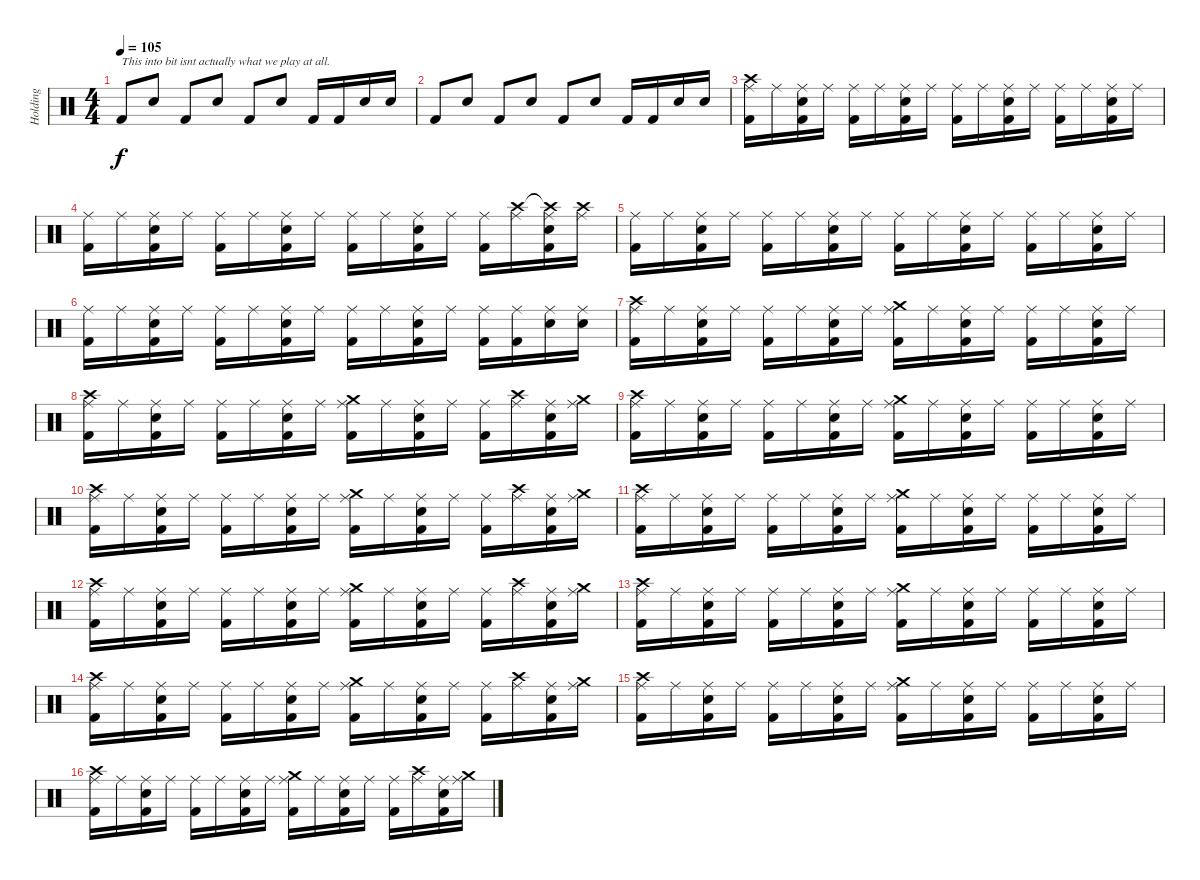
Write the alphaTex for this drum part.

\track ("Holding" "Holding") {instrument percussion}
\staff {score}
\articulation defaults
\ts (4 4)
\tempo 105
\clef neutral
\ks c "Kick (hit) 2".8{txt "This into bit isnt actually what we play at all." dy f} "Electric Snare (hit)".8 "Kick (hit) 2".8 "Electric Snare (hit)".8 "Kick (hit) 2".8 "Electric Snare (hit)".8 "Kick (hit) 2".16 "Kick (hit) 2".16 "Electric Snare (hit)".16 "Electric Snare (hit)".16
|
"Kick (hit) 2".8 "Electric Snare (hit)".8 "Kick (hit) 2".8 "Electric Snare (hit)".8 "Kick (hit) 2".8 "Electric Snare (hit)".8 "Kick (hit) 2".16 "Kick (hit) 2".16 "Electric Snare (hit)".16 "Electric Snare (hit)".16 |
("Crash high (hit)" "Ride (middle)" "Kick (hit) 2").16 "Ride (middle)".16 ("Ride (middle)" "Electric Snare (hit)" "Kick (hit) 2").16 "Ride (middle)".16 ("Ride (middle)" "Kick (hit) 2").16 "Ride (middle)".16 ("Ride (middle)" "Electric Snare (hit)" "Kick (hit) 2").16 "Ride (middle)".16 ("Ride (middle)" "Kick (hit) 2").16 "Ride (middle)".16 ("Ride (middle)" "Electric Snare (hit)" "Kick (hit) 2").16 "Ride (middle)".16 ("Ride (middle)" "Kick (hit) 2").16 "Ride (middle)".16 ("Ride (middle)" "Electric Snare (hit)" "Kick (hit) 2").16 "Ride (middle)".16 |
("Ride (middle)" "Kick (hit) 2").16 "Ride (middle)".16 ("Ride (middle)" "Electric Snare (hit)" "Kick (hit) 2").16 "Ride (middle)".16 ("Ride (middle)" "Kick (hit) 2").16 "Ride (middle)".16 ("Ride (middle)" "Electric Snare (hit)" "Kick (hit) 2").16 "Ride (middle)".16 ("Ride (middle)" "Kick (hit) 2").16 "Ride (middle)".16 ("Ride (middle)" "Electric Snare (hit)" "Kick (hit) 2").16 "Ride (middle)".16 ("Ride (middle)" "Kick (hit) 2").16 ("Crash high (hit)" "Ride (middle)").16 ("Crash high (hit)"{t} "Ride (middle)" "Electric Snare (hit)" "Kick (hit) 2").16 ("Crash high (hit)" "Ride (middle)").16 |
("Ride (middle)" "Kick (hit) 2").16 "Ride (middle)".16 ("Ride (middle)" "Electric Snare (hit)" "Kick (hit) 2").16 "Ride (middle)".16 ("Ride (middle)" "Kick (hit) 2").16 "Ride (middle)".16 ("Ride (middle)" "Electric Snare (hit)" "Kick (hit) 2").16 "Ride (middle)".16 ("Ride (middle)" "Kick (hit) 2").16 "Ride (middle)".16 ("Ride (middle)" "Electric Snare (hit)" "Kick (hit) 2").16 "Ride (middle)".16 ("Ride (middle)" "Kick (hit) 2").16 "Ride (middle)".16 ("Ride (middle)" "Electric Snare (hit)" "Kick (hit) 2").16 "Ride (middle)".16 |
("Ride (middle)" "Kick (hit) 2").16 "Ride (middle)".16 ("Ride (middle)" "Electric Snare (hit)" "Kick (hit) 2").16 "Ride (middle)".16 ("Ride (middle)" "Kick (hit) 2").16 "Ride (middle)".16 ("Ride (middle)" "Electric Snare (hit)" "Kick (hit) 2").16 "Ride (middle)".16 ("Ride (middle)" "Kick (hit) 2").16 "Ride (middle)".16 ("Ride (middle)" "Electric Snare (hit)" "Kick (hit) 2").16 "Ride (middle)".16 ("Ride (middle)" "Kick (hit) 2").16 ("Ride (middle)" "Kick (hit) 2").16 ("Ride (middle)" "Electric Snare (hit)").16 ("Ride (middle)" "Electric Snare (hit)").16 |
("Crash high (hit)" "Ride (middle)" "Kick (hit) 2").16 "Ride (middle)".16 ("Ride (middle)" "Electric Snare (hit)" "Kick (hit) 2").16 "Ride (middle)".16 ("Ride (middle)" "Kick (hit) 2").16 "Ride (middle)".16 ("Ride (middle)" "Electric Snare (hit)" "Kick (hit) 2").16 "Ride (middle)".16 ("Crash medium (hit)" "Ride (middle)" "Kick (hit) 2").16 "Ride (middle)".16 ("Ride (middle)" "Electric Snare (hit)" "Kick (hit) 2").16 "Ride (middle)".16 ("Ride (middle)" "Kick (hit) 2").16 "Ride (middle)".16 ("Ride (middle)" "Electric Snare (hit)" "Kick (hit) 2").16 "Ride (middle)".16 |
("Crash high (hit)" "Ride (middle)" "Kick (hit) 2").16 "Ride (middle)".16 ("Ride (middle)" "Electric Snare (hit)" "Kick (hit) 2").16 "Ride (middle)".16 ("Ride (middle)" "Kick (hit) 2").16 "Ride (middle)".16 ("Ride (middle)" "Electric Snare (hit)" "Kick (hit) 2").16 "Ride (middle)".16 ("Crash medium (hit)" "Ride (middle)" "Kick (hit) 2").16 "Ride (middle)".16 ("Ride (middle)" "Electric Snare (hit)" "Kick (hit) 2").16 "Ride (middle)".16 ("Ride (middle)" "Kick (hit) 2").16 ("Crash high (hit)" "Ride (middle)").16 ("Ride (middle)" "Electric Snare (hit)" "Kick (hit) 2").16 ("Crash medium (hit)" "Ride (middle)").16 |
("Crash high (hit)" "Ride (middle)" "Kick (hit) 2").16 "Ride (middle)".16 ("Ride (middle)" "Electric Snare (hit)" "Kick (hit) 2").16 "Ride (middle)".16 ("Ride (middle)" "Kick (hit) 2").16 "Ride (middle)".16 ("Ride (middle)" "Electric Snare (hit)" "Kick (hit) 2").16 "Ride (middle)".16 ("Crash medium (hit)" "Ride (middle)" "Kick (hit) 2").16 "Ride (middle)".16 ("Ride (middle)" "Electric Snare (hit)" "Kick (hit) 2").16 "Ride (middle)".16 ("Ride (middle)" "Kick (hit) 2").16 "Ride (middle)".16 ("Ride (middle)" "Electric Snare (hit)" "Kick (hit) 2").16 "Ride (middle)".16 |
("Crash high (hit)" "Ride (middle)" "Kick (hit) 2").16 "Ride (middle)".16 ("Ride (middle)" "Electric Snare (hit)" "Kick (hit) 2").16 "Ride (middle)".16 ("Ride (middle)" "Kick (hit) 2").16 "Ride (middle)".16 ("Ride (middle)" "Electric Snare (hit)" "Kick (hit) 2").16 "Ride (middle)".16 ("Crash medium (hit)" "Ride (middle)" "Kick (hit) 2").16 "Ride (middle)".16 ("Ride (middle)" "Electric Snare (hit)" "Kick (hit) 2").16 "Ride (middle)".16 ("Ride (middle)" "Kick (hit) 2").16 ("Crash high (hit)" "Ride (middle)").16 ("Ride (middle)" "Electric Snare (hit)" "Kick (hit) 2").16 ("Crash medium (hit)" "Ride (middle)").16 |
("Crash high (hit)" "Ride (middle)" "Kick (hit) 2").16 "Ride (middle)".16 ("Ride (middle)" "Electric Snare (hit)" "Kick (hit) 2").16 "Ride (middle)".16 ("Ride (middle)" "Kick (hit) 2").16 "Ride (middle)".16 ("Ride (middle)" "Electric Snare (hit)" "Kick (hit) 2").16 "Ride (middle)".16 ("Crash medium (hit)" "Ride (middle)" "Kick (hit) 2").16 "Ride (middle)".16 ("Ride (middle)" "Electric Snare (hit)" "Kick (hit) 2").16 "Ride (middle)".16 ("Ride (middle)" "Kick (hit) 2").16 "Ride (middle)".16 ("Ride (middle)" "Electric Snare (hit)" "Kick (hit) 2").16 "Ride (middle)".16 |
("Crash high (hit)" "Ride (middle)" "Kick (hit) 2").16 "Ride (middle)".16 ("Ride (middle)" "Electric Snare (hit)" "Kick (hit) 2").16 "Ride (middle)".16 ("Ride (middle)" "Kick (hit) 2").16 "Ride (middle)".16 ("Ride (middle)" "Electric Snare (hit)" "Kick (hit) 2").16 "Ride (middle)".16 ("Crash medium (hit)" "Ride (middle)" "Kick (hit) 2").16 "Ride (middle)".16 ("Ride (middle)" "Electric Snare (hit)" "Kick (hit) 2").16 "Ride (middle)".16 ("Ride (middle)" "Kick (hit) 2").16 ("Crash high (hit)" "Ride (middle)").16 ("Ride (middle)" "Electric Snare (hit)" "Kick (hit) 2").16 ("Crash medium (hit)" "Ride (middle)").16 |
("Crash high (hit)" "Ride (middle)" "Kick (hit) 2").16 "Ride (middle)".16 ("Ride (middle)" "Electric Snare (hit)" "Kick (hit) 2").16 "Ride (middle)".16 ("Ride (middle)" "Kick (hit) 2").16 "Ride (middle)".16 ("Ride (middle)" "Electric Snare (hit)" "Kick (hit) 2").16 "Ride (middle)".16 ("Crash medium (hit)" "Ride (middle)" "Kick (hit) 2").16 "Ride (middle)".16 ("Ride (middle)" "Electric Snare (hit)" "Kick (hit) 2").16 "Ride (middle)".16 ("Ride (middle)" "Kick (hit) 2").16 "Ride (middle)".16 ("Ride (middle)" "Electric Snare (hit)" "Kick (hit) 2").16 "Ride (middle)".16 |
("Crash high (hit)" "Ride (middle)" "Kick (hit) 2").16 "Ride (middle)".16 ("Ride (middle)" "Electric Snare (hit)" "Kick (hit) 2").16 "Ride (middle)".16 ("Ride (middle)" "Kick (hit) 2").16 "Ride (middle)".16 ("Ride (middle)" "Electric Snare (hit)" "Kick (hit) 2").16 "Ride (middle)".16 ("Crash medium (hit)" "Ride (middle)" "Kick (hit) 2").16 "Ride (middle)".16 ("Ride (middle)" "Electric Snare (hit)" "Kick (hit) 2").16 "Ride (middle)".16 ("Ride (middle)" "Kick (hit) 2").16 ("Crash high (hit)" "Ride (middle)").16 ("Ride (middle)" "Electric Snare (hit)" "Kick (hit) 2").16 ("Crash medium (hit)" "Ride (middle)").16 |
("Crash high (hit)" "Ride (middle)" "Kick (hit) 2").16 "Ride (middle)".16 ("Ride (middle)" "Electric Snare (hit)" "Kick (hit) 2").16 "Ride (middle)".16 ("Ride (middle)" "Kick (hit) 2").16 "Ride (middle)".16 ("Ride (middle)" "Electric Snare (hit)" "Kick (hit) 2").16 "Ride (middle)".16 ("Crash medium (hit)" "Ride (middle)" "Kick (hit) 2").16 "Ride (middle)".16 ("Ride (middle)" "Electric Snare (hit)" "Kick (hit) 2").16 "Ride (middle)".16 ("Ride (middle)" "Kick (hit) 2").16 "Ride (middle)".16 ("Ride (middle)" "Electric Snare (hit)" "Kick (hit) 2").16 "Ride (middle)".16 |
("Crash high (hit)" "Ride (middle)" "Kick (hit) 2").16 "Ride (middle)".16 ("Ride (middle)" "Electric Snare (hit)" "Kick (hit) 2").16 "Ride (middle)".16 ("Ride (middle)" "Kick (hit) 2").16 "Ride (middle)".16 ("Ride (middle)" "Electric Snare (hit)" "Kick (hit) 2").16 "Ride (middle)".16 ("Crash medium (hit)" "Ride (middle)" "Kick (hit) 2").16 "Ride (middle)".16 ("Ride (middle)" "Electric Snare (hit)" "Kick (hit) 2").16 "Ride (middle)".16 ("Ride (middle)" "Kick (hit) 2").16 ("Crash high (hit)" "Ride (middle)").16 ("Ride (middle)" "Electric Snare (hit)" "Kick (hit) 2").16 ("Crash medium (hit)" "Ride (middle)").16
